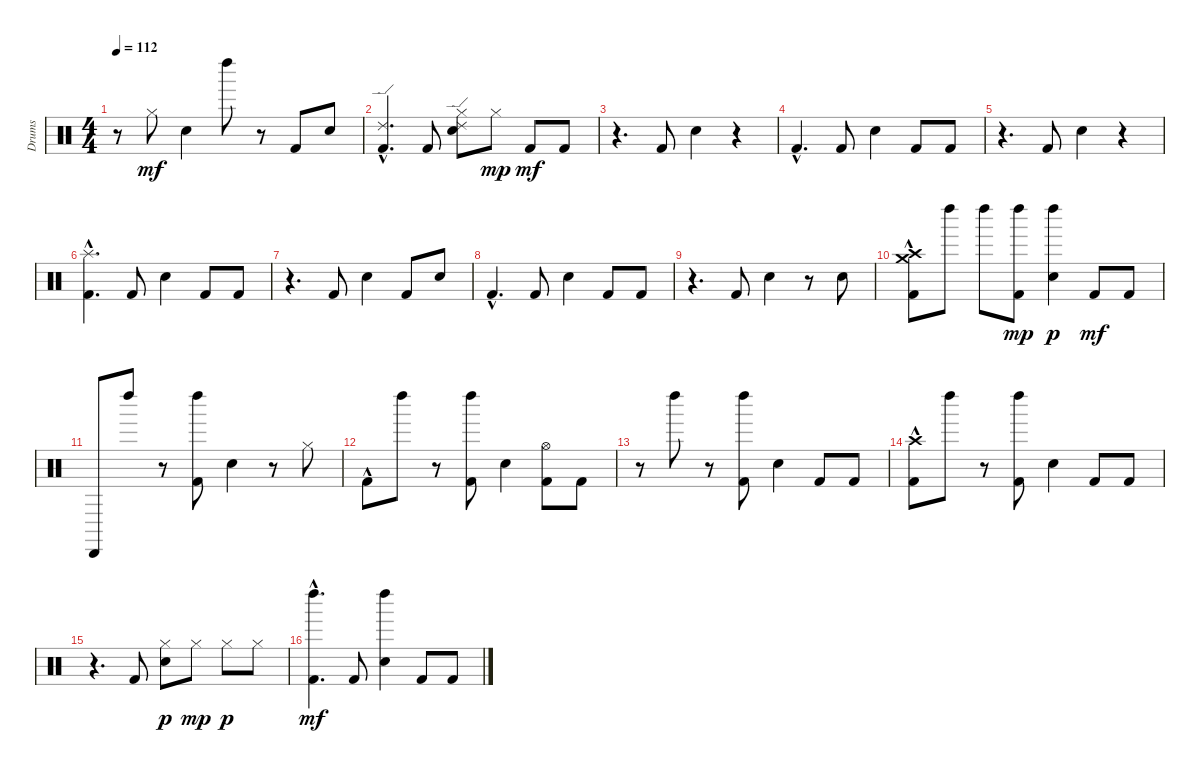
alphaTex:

\track ("Drums" "Drums") {instrument percussion}
\staff {score}
\articulation defaults
\ts (4 4)
\tempo 112
\clef neutral
\ks c
r.8{dy mf} "Hi-Hat (closed)".8 "Electric Snare (hit)".4 "Left Maraca (hit)".8 r.8 "Kick (hit) 2".8 "Snare (hit) 2".8 |
("Kick (hit) 2"{hac} "Ride (edge) 2").4{d} "Kick (hit) 2".8 ("Snare (hit) 2" "Ride (edge) 2" "Hi-Hat (closed)").8 "Hi-Hat (closed)".8{dy mp} "Kick (hit) 2".8{dy mf} "Kick (hit) 2".8 |
r.4{d} "Kick (hit) 2".8 "Snare (hit) 2".4 r.4 |
"Kick (hit) 2"{hac}.4{d} "Kick (hit) 2".8 "Snare (hit) 2".4 "Kick (hit) 2".8 "Kick (hit) 2".8 |
r.4{d} "Kick (hit) 2".8 "Snare (hit) 2".4 r.4 |
("Kick (hit) 2"{hac} "Splash (hit)").4{d} "Kick (hit) 2".8 "Snare (hit) 2".4 "Kick (hit) 2".8 "Kick (hit) 2".8 |
r.4{d} "Kick (hit) 2".8 "Snare (hit) 2".4 "Kick (hit) 2".8 "Snare (hit) 2".8 |
"Kick (hit) 2"{hac}.4{d} "Kick (hit) 2".8 "Snare (hit) 2".4 "Kick (hit) 2".8 "Kick (hit) 2".8 |
r.4{d} "Kick (hit) 2".8 "Snare (hit) 2".4 r.8 "Snare (hit) 2".8 |
("Kick (hit) 2"{hac} "Crash high (hit)" "Crash medium (hit)").8 "Left Maraca (hit)".8 "Left Maraca (hit)".8 ("Kick (hit) 2" "Left Maraca (hit)").8{dy mp} ("Snare (hit) 2" "Left Maraca (hit)").4{dy p} "Kick (hit) 2".8{dy mf} "Kick (hit) 2".8 |
"Cabasa (hit)".8 "Left Maraca (hit)".8 r.8 ("Kick (hit) 2" "Left Maraca (hit)").8 "Snare (hit) 2".4 r.8 "Hi-Hat (closed)".8 |
"Kick (hit) 2"{hac}.8 "Left Maraca (hit)".8 r.8 ("Kick (hit) 2" "Left Maraca (hit)").8 "Snare (hit) 2".4 ("Kick (hit) 2" "Hi-Hat (open)").8 "Kick (hit) 2".8 |
r.8 "Left Maraca (hit)".8 r.8 ("Kick (hit) 2" "Left Maraca (hit)").8 "Snare (hit) 2".4 "Kick (hit) 2".8 "Kick (hit) 2".8 |
("Kick (hit) 2"{hac} "Crash high (hit)").8 "Left Maraca (hit)".8 r.8 ("Kick (hit) 2" "Left Maraca (hit)").8 "Snare (hit) 2".4 "Kick (hit) 2".8 "Kick (hit) 2".8 |
r.4{d} "Kick (hit) 2".8 ("Snare (hit) 2" "Hi-Hat (closed)").8{dy p} "Hi-Hat (closed)".8{dy mp} "Hi-Hat (closed)".8{dy p} "Hi-Hat (closed)".8 |
("Kick (hit) 2"{hac} "Left Maraca (hit)").4{d dy mf} "Kick (hit) 2".8 ("Snare (hit) 2" "Left Maraca (hit)").4 "Kick (hit) 2".8 "Kick (hit) 2".8
